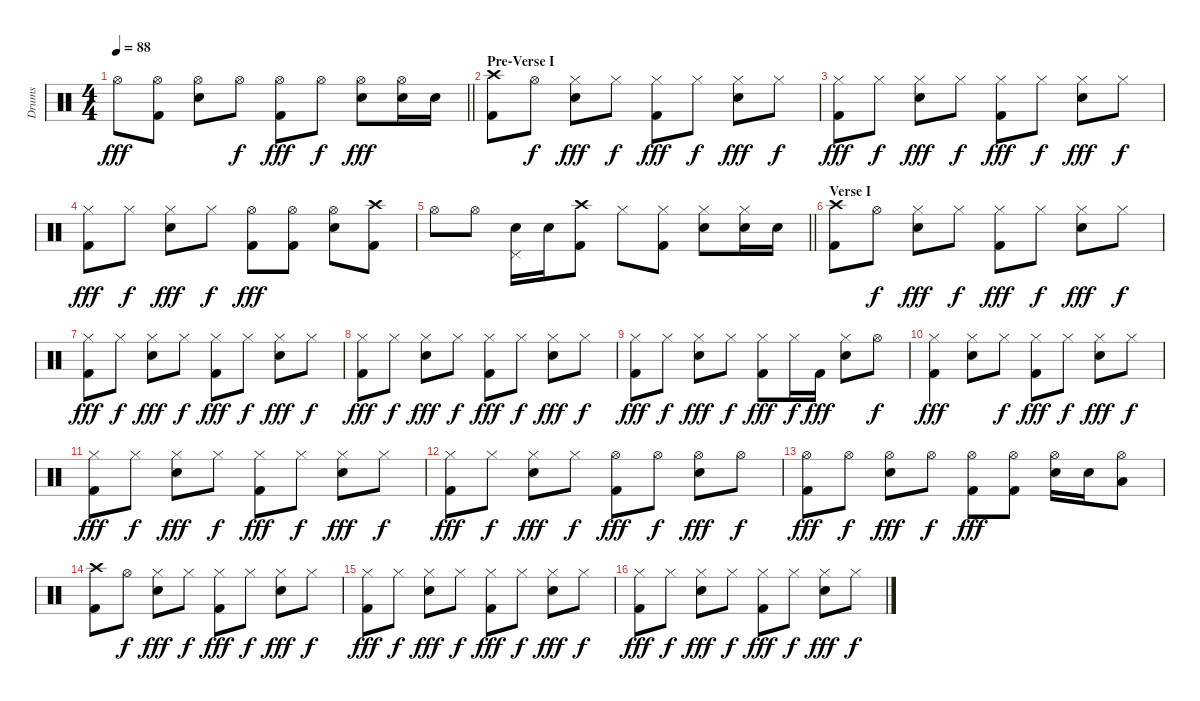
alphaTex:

\track ("Drums" "Drums") {instrument percussion}
\staff {score}
\articulation defaults
\ts (4 4)
\tempo 88
\clef neutral
\barLineRight lightlight
\ks c "Hi-Hat (open)".8{dy fff}
("Hi-Hat (open)" "Kick (hit) 2").8 ("Hi-Hat (open)" "Snare (hit) 2").8 "Hi-Hat (open)".8{dy f} ("Hi-Hat (open)" "Kick (hit) 2").8{dy fff} "Hi-Hat (open)".8{dy f} ("Hi-Hat (open)" "Snare (hit) 2").8{dy fff} ("Hi-Hat (open)" "Snare (hit) 2").16 "Snare (hit) 2".16 |
\section ("" "Pre-Verse I")
("Crash high (hit)" "Kick (hit) 2").8 "Hi-Hat (open)".8{dy f} ("Hi-Hat (closed)" "Snare (hit) 2").8{dy fff} "Hi-Hat (closed)".8{dy f} ("Hi-Hat (closed)" "Kick (hit) 2").8{dy fff} "Hi-Hat (closed)".8{dy f} ("Hi-Hat (closed)" "Snare (hit) 2").8{dy fff} "Hi-Hat (closed)".8{dy f} |
("Hi-Hat (closed)" "Kick (hit) 2").8{dy fff} "Hi-Hat (closed)".8{dy f} ("Hi-Hat (closed)" "Snare (hit) 2").8{dy fff} "Hi-Hat (closed)".8{dy f} ("Hi-Hat (closed)" "Kick (hit) 2").8{dy fff} "Hi-Hat (closed)".8{dy f} ("Hi-Hat (closed)" "Snare (hit) 2").8{dy fff} "Hi-Hat (closed)".8{dy f} |
("Hi-Hat (closed)" "Kick (hit) 2").8{dy fff} "Hi-Hat (closed)".8{dy f} ("Hi-Hat (closed)" "Snare (hit) 2").8{dy fff} "Hi-Hat (closed)".8{dy f} ("Hi-Hat (open)" "Kick (hit) 2").8{dy fff} ("Hi-Hat (open)" "Kick (hit) 2").8 ("Hi-Hat (open)" "Snare (hit) 2").8 ("Crash high (hit)" "Kick (hit) 2").8 |
\barLineRight lightlight "Hi-Hat (open)".8 "Hi-Hat (open)".8
("Pedal Hi-Hat (hit)" "Snare (hit) 2").16 "Snare (hit) 2".16 ("Crash high (hit)" "Kick (hit) 2").8 "Hi-Hat (closed)".8 ("Hi-Hat (closed)" "Kick (hit) 2").8 ("Hi-Hat (closed)" "Snare (hit) 2").8 ("Hi-Hat (closed)" "Snare (hit) 2").16 "Snare (hit) 2".16 |
\section ("" "Verse I")
("Crash high (hit)" "Kick (hit) 2").8 "Hi-Hat (open)".8{dy f} ("Hi-Hat (closed)" "Snare (hit) 2").8{dy fff} "Hi-Hat (closed)".8{dy f} ("Hi-Hat (closed)" "Kick (hit) 2").8{dy fff} "Hi-Hat (closed)".8{dy f} ("Hi-Hat (closed)" "Snare (hit) 2").8{dy fff} "Hi-Hat (closed)".8{dy f} |
("Hi-Hat (closed)" "Kick (hit) 2").8{dy fff} "Hi-Hat (closed)".8{dy f} ("Hi-Hat (closed)" "Snare (hit) 2").8{dy fff} "Hi-Hat (closed)".8{dy f} ("Hi-Hat (closed)" "Kick (hit) 2").8{dy fff} "Hi-Hat (closed)".8{dy f} ("Hi-Hat (closed)" "Snare (hit) 2").8{dy fff} "Hi-Hat (closed)".8{dy f} |
("Hi-Hat (closed)" "Kick (hit) 2").8{dy fff} "Hi-Hat (closed)".8{dy f} ("Hi-Hat (closed)" "Snare (hit) 2").8{dy fff} "Hi-Hat (closed)".8{dy f} ("Hi-Hat (closed)" "Kick (hit) 2").8{dy fff} "Hi-Hat (closed)".8{dy f} ("Hi-Hat (closed)" "Snare (hit) 2").8{dy fff} "Hi-Hat (closed)".8{dy f} |
("Hi-Hat (closed)" "Kick (hit) 2").8{dy fff} "Hi-Hat (closed)".8{dy f} ("Hi-Hat (closed)" "Snare (hit) 2").8{dy fff} "Hi-Hat (closed)".8{dy f} ("Hi-Hat (closed)" "Kick (hit) 2").8{dy fff} "Hi-Hat (closed)".16{dy f} "Kick (hit) 2".16{dy fff} ("Hi-Hat (closed)" "Snare (hit) 2").8 "Hi-Hat (open)".8{dy f} |
("Hi-Hat (closed)" "Kick (hit) 2").4{dy fff} ("Hi-Hat (closed)" "Snare (hit) 2").8 "Hi-Hat (closed)".8{dy f} ("Hi-Hat (closed)" "Kick (hit) 2").8{dy fff} "Hi-Hat (closed)".8{dy f} ("Hi-Hat (closed)" "Snare (hit) 2").8{dy fff} "Hi-Hat (closed)".8{dy f} |
("Hi-Hat (closed)" "Kick (hit) 2").8{dy fff} "Hi-Hat (closed)".8{dy f} ("Hi-Hat (closed)" "Snare (hit) 2").8{dy fff} "Hi-Hat (closed)".8{dy f} ("Hi-Hat (closed)" "Kick (hit) 2").8{dy fff} "Hi-Hat (closed)".8{dy f} ("Hi-Hat (closed)" "Snare (hit) 2").8{dy fff} "Hi-Hat (closed)".8{dy f} |
("Hi-Hat (closed)" "Kick (hit) 2").8{dy fff} "Hi-Hat (closed)".8{dy f} ("Hi-Hat (closed)" "Snare (hit) 2").8{dy fff} "Hi-Hat (closed)".8{dy f} ("Hi-Hat (open)" "Kick (hit) 2").8{dy fff} "Hi-Hat (open)".8{dy f} ("Hi-Hat (open)" "Snare (hit) 2").8{dy fff} "Hi-Hat (open)".8{dy f} |
("Hi-Hat (open)" "Kick (hit) 2").8{dy fff} "Hi-Hat (open)".8{dy f} ("Hi-Hat (open)" "Snare (hit) 2").8{dy fff} "Hi-Hat (open)".8{dy f} ("Hi-Hat (open)" "Kick (hit) 2").8{dy fff} ("Hi-Hat (open)" "Kick (hit) 2").8 ("Hi-Hat (open)" "Snare (hit) 2").16 "Snare (hit) 2".16 ("Hi-Hat (open)" "Low Tom (hit)").8 |
("Crash high (hit)" "Kick (hit) 2").8 "Hi-Hat (open)".8{dy f} ("Hi-Hat (closed)" "Snare (hit) 2").8{dy fff} "Hi-Hat (closed)".8{dy f} ("Hi-Hat (closed)" "Kick (hit) 2").8{dy fff} "Hi-Hat (closed)".8{dy f} ("Hi-Hat (closed)" "Snare (hit) 2").8{dy fff} "Hi-Hat (closed)".8{dy f} |
("Hi-Hat (closed)" "Kick (hit) 2").8{dy fff} "Hi-Hat (closed)".8{dy f} ("Hi-Hat (closed)" "Snare (hit) 2").8{dy fff} "Hi-Hat (closed)".8{dy f} ("Hi-Hat (closed)" "Kick (hit) 2").8{dy fff} "Hi-Hat (closed)".8{dy f} ("Hi-Hat (closed)" "Snare (hit) 2").8{dy fff} "Hi-Hat (closed)".8{dy f} |
("Hi-Hat (closed)" "Kick (hit) 2").8{dy fff} "Hi-Hat (closed)".8{dy f} ("Hi-Hat (closed)" "Snare (hit) 2").8{dy fff} "Hi-Hat (closed)".8{dy f} ("Hi-Hat (closed)" "Kick (hit) 2").8{dy fff} "Hi-Hat (closed)".8{dy f} ("Hi-Hat (closed)" "Snare (hit) 2").8{dy fff} "Hi-Hat (closed)".8{dy f}
